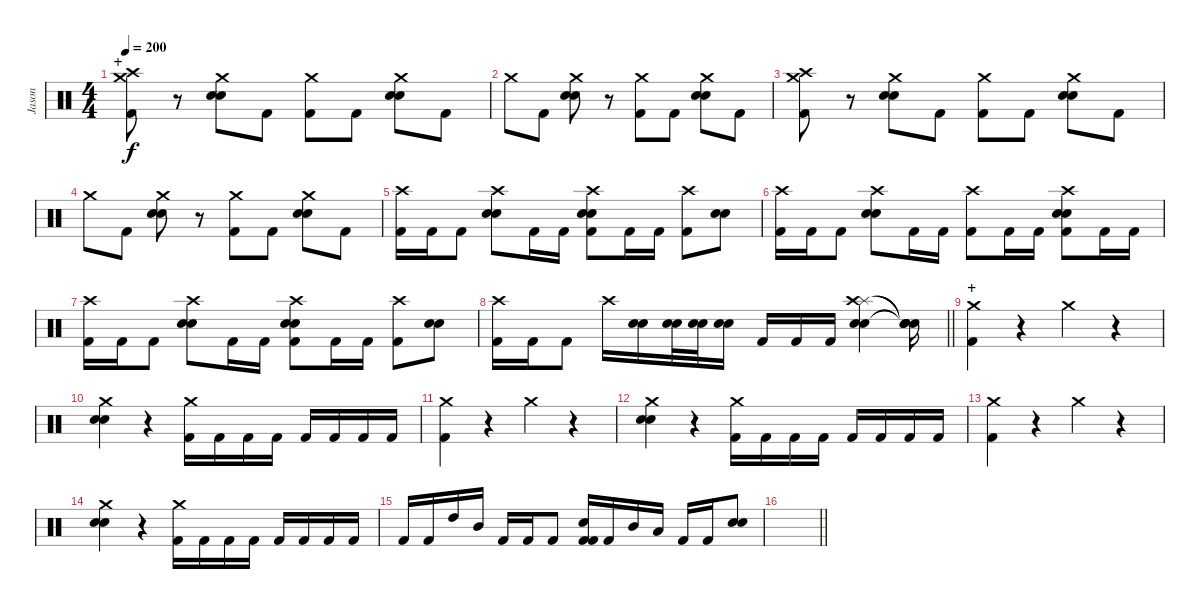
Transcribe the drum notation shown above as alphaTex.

\track ("Jason" "Jason") {instrument percussion}
\staff {score}
\articulation defaults
\ts (4 4)
\section ("" "+")
\tempo 200
\clef neutral
\ks c
("Crash medium (hit)" "Crash high (hit)" "Kick (hit) 2").8{dy f} r.8 ("Crash medium (hit)" "Electric Snare (hit)" "Snare (hit) 2").8 "Kick (hit) 2".8 ("Crash medium (hit)" "Kick (hit) 2").8 "Kick (hit) 2".8 ("Crash medium (hit)" "Electric Snare (hit)" "Snare (hit) 2").8 "Kick (hit) 2".8 |
"Crash medium (hit)".8 "Kick (hit) 2".8 ("Crash medium (hit)" "Electric Snare (hit)" "Snare (hit) 2").8 r.8 ("Crash medium (hit)" "Kick (hit) 2").8 "Kick (hit) 2".8 ("Crash medium (hit)" "Electric Snare (hit)" "Snare (hit) 2").8 "Kick (hit) 2".8 |
("Crash medium (hit)" "Crash high (hit)" "Kick (hit) 2").8 r.8 ("Crash medium (hit)" "Electric Snare (hit)" "Snare (hit) 2").8 "Kick (hit) 2".8 ("Crash medium (hit)" "Kick (hit) 2").8 "Kick (hit) 2".8 ("Crash medium (hit)" "Electric Snare (hit)" "Snare (hit) 2").8 "Kick (hit) 2".8 |
"Crash medium (hit)".8 "Kick (hit) 2".8 ("Crash medium (hit)" "Electric Snare (hit)" "Snare (hit) 2").8 r.8 ("Crash medium (hit)" "Kick (hit) 2").8 "Kick (hit) 2".8 ("Crash medium (hit)" "Electric Snare (hit)" "Snare (hit) 2").8 "Kick (hit) 2".8 |
("Crash high (hit)" "Kick (hit) 2").16 "Kick (hit) 2".16 "Kick (hit) 2".8 ("Crash high (hit)" "Electric Snare (hit)" "Snare (hit) 2").8 "Kick (hit) 2".16 "Kick (hit) 2".16 ("Crash high (hit)" "Electric Snare (hit)" "Snare (hit) 2" "Kick (hit) 2").8 "Kick (hit) 2".16 "Kick (hit) 2".16 ("Crash high (hit)" "Kick (hit) 2").8 ("Electric Snare (hit)" "Snare (hit) 2").8 |
("Crash high (hit)" "Kick (hit) 2").16 "Kick (hit) 2".16 "Kick (hit) 2".8 ("Crash high (hit)" "Electric Snare (hit)" "Snare (hit) 2").8 "Kick (hit) 2".16 "Kick (hit) 2".16 ("Crash high (hit)" "Kick (hit) 2").8 "Kick (hit) 2".16 "Kick (hit) 2".16 ("Crash high (hit)" "Electric Snare (hit)" "Snare (hit) 2" "Kick (hit) 2").8 "Kick (hit) 2".16 "Kick (hit) 2".16 |
("Crash high (hit)" "Kick (hit) 2").16 "Kick (hit) 2".16 "Kick (hit) 2".8 ("Crash high (hit)" "Electric Snare (hit)" "Snare (hit) 2").8 "Kick (hit) 2".16 "Kick (hit) 2".16 ("Crash high (hit)" "Electric Snare (hit)" "Snare (hit) 2" "Kick (hit) 2").8 "Kick (hit) 2".16 "Kick (hit) 2".16 ("Crash high (hit)" "Kick (hit) 2").8 ("Electric Snare (hit)" "Snare (hit) 2").8 |
\barLineRight lightlight
("Crash high (hit)" "Kick (hit) 2").16 "Kick (hit) 2".16 "Kick (hit) 2".8 "Crash high (hit)".16 ("Electric Snare (hit)" "Snare (hit) 2").16 ("Electric Snare (hit)" "Snare (hit) 2").32 ("Electric Snare (hit)" "Snare (hit) 2").32 ("Electric Snare (hit)" "Snare (hit) 2").16 "Kick (hit) 2".16 "Kick (hit) 2".16 "Kick (hit) 2".16 ("Splash (hit)" "Crash high (hit)" "Electric Snare (hit)" "Snare (hit) 2").4 ("Snare (hit)"{t} "Snare (hit)"{t} "Snare (hit)"{t} "Snare (hit)"{t}).16 |
\section ("" "+")
("Crash medium (hit)" "Kick (hit) 2").4 r.4 "Crash medium (hit)".4 r.4 |
("Crash medium (hit)" "Electric Snare (hit)" "Snare (hit) 2").4 r.4 ("Crash medium (hit)" "Kick (hit) 2").16 "Kick (hit) 2".16 "Kick (hit) 2".16 "Kick (hit) 2".16 "Kick (hit) 2".16 "Kick (hit) 2".16 "Kick (hit) 2".16 "Kick (hit) 2".16 |
("Crash medium (hit)" "Kick (hit) 2").4 r.4 "Crash medium (hit)".4 r.4 |
("Crash medium (hit)" "Electric Snare (hit)" "Snare (hit) 2").4 r.4 ("Crash medium (hit)" "Kick (hit) 2").16 "Kick (hit) 2".16 "Kick (hit) 2".16 "Kick (hit) 2".16 "Kick (hit) 2".16 "Kick (hit) 2".16 "Kick (hit) 2".16 "Kick (hit) 2".16 |
("Crash medium (hit)" "Kick (hit) 2").4 r.4 "Crash medium (hit)".4 r.4 |
("Crash medium (hit)" "Electric Snare (hit)" "Snare (hit) 2").4 r.4 ("Crash medium (hit)" "Kick (hit) 2").16 "Kick (hit) 2".16 "Kick (hit) 2".16 "Kick (hit) 2".16 "Kick (hit) 2".16 "Kick (hit) 2".16 "Kick (hit) 2".16 "Kick (hit) 2".16 |
"Kick (hit) 2".16 "Kick (hit) 2".16 "High Tom (hit)".16 "Mid Tom (hit)".16 "Kick (hit) 2".16 "Kick (hit) 2".16 "Kick (hit) 2".8 ("Snare (hit) 2" "Kick (hit) 2" "Kick (hit) 2").16 "Kick (hit) 2".16 "Mid Tom (hit)".16 "Low Tom (hit)".16 "Kick (hit) 2".16 "Kick (hit) 2".16 ("Electric Snare (hit)" "Snare (hit) 2").8 |
\barLineRight lightlight
